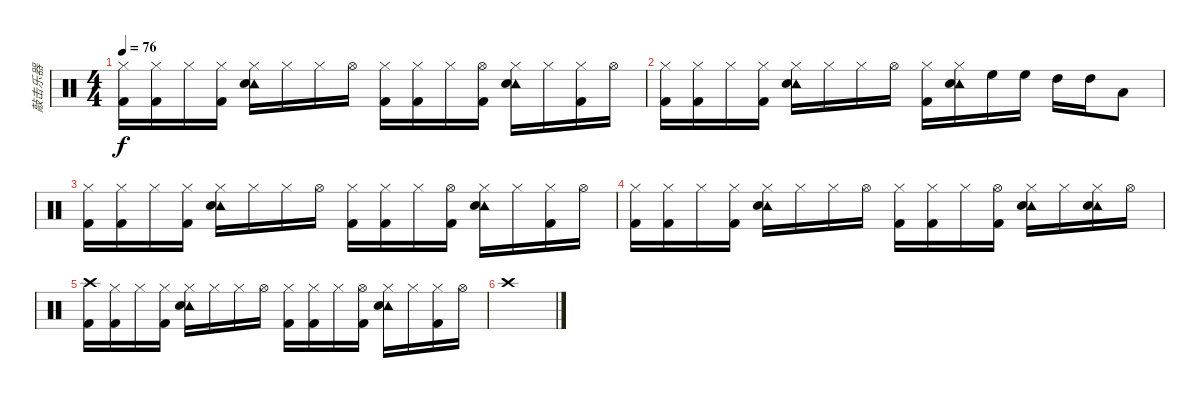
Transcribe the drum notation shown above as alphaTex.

\track ("敲击乐器" "敲击乐器") {instrument percussion}
\staff {score}
\articulation defaults
\ts (4 4)
\tempo 76
\clef neutral
\ks c
("Hi-Hat (closed)" "Kick (hit) 2").16{dy f} ("Hi-Hat (closed)" "Kick (hit) 2").16 "Hi-Hat (closed)".16 ("Hi-Hat (closed)" "Kick (hit) 2").16 ("Hi-Hat (closed)" "Tambourine (hit)" "Snare (hit) 2").16 "Hi-Hat (closed)".16 "Hi-Hat (closed)".16 "Hi-Hat (open)".16 ("Hi-Hat (closed)" "Kick (hit) 2").16 ("Hi-Hat (closed)" "Kick (hit) 2").16 "Hi-Hat (closed)".16 ("Hi-Hat (open)" "Kick (hit) 2").16 ("Hi-Hat (closed)" "Tambourine (hit)" "Snare (hit) 2").16 "Hi-Hat (closed)".16 ("Hi-Hat (closed)" "Kick (hit) 2").16 "Hi-Hat (open)".16 |
("Hi-Hat (closed)" "Kick (hit) 2").16 ("Hi-Hat (closed)" "Kick (hit) 2").16 "Hi-Hat (closed)".16 ("Hi-Hat (closed)" "Kick (hit) 2").16 ("Hi-Hat (closed)" "Tambourine (hit)" "Snare (hit) 2").16 "Hi-Hat (closed)".16 "Hi-Hat (closed)".16 "Hi-Hat (open)".16 ("Hi-Hat (closed)" "Kick (hit) 2").16 ("Hi-Hat (closed)" "Tambourine (hit)" "Snare (hit) 2").16 "High Floor Tom (hit)".16 "High Floor Tom (hit)".16 "High Tom (hit)".16 "High Tom (hit)".16 "Low Tom (hit)".8 |
("Hi-Hat (closed)" "Kick (hit) 2").16 ("Hi-Hat (closed)" "Kick (hit) 2").16 "Hi-Hat (closed)".16 ("Hi-Hat (closed)" "Kick (hit) 2").16 ("Hi-Hat (closed)" "Tambourine (hit)" "Snare (hit) 2").16 "Hi-Hat (closed)".16 "Hi-Hat (closed)".16 "Hi-Hat (open)".16 ("Hi-Hat (closed)" "Kick (hit) 2").16 ("Hi-Hat (closed)" "Kick (hit) 2").16 "Hi-Hat (closed)".16 ("Hi-Hat (open)" "Kick (hit) 2").16 ("Hi-Hat (closed)" "Tambourine (hit)" "Snare (hit) 2").16 "Hi-Hat (closed)".16 ("Hi-Hat (closed)" "Kick (hit) 2").16 "Hi-Hat (open)".16 |
("Hi-Hat (closed)" "Kick (hit) 2").16 ("Hi-Hat (closed)" "Kick (hit) 2").16 "Hi-Hat (closed)".16 ("Hi-Hat (closed)" "Kick (hit) 2").16 ("Hi-Hat (closed)" "Tambourine (hit)" "Snare (hit) 2").16 "Hi-Hat (closed)".16 "Hi-Hat (closed)".16 "Hi-Hat (open)".16 ("Hi-Hat (closed)" "Kick (hit) 2").16 ("Hi-Hat (closed)" "Kick (hit) 2").16 "Hi-Hat (closed)".16 ("Hi-Hat (open)" "Kick (hit) 2").16 ("Hi-Hat (closed)" "Tambourine (hit)" "Snare (hit) 2").16 "Hi-Hat (closed)".16 ("Hi-Hat (closed)" "Tambourine (hit)" "Snare (hit) 2").16 "Hi-Hat (open)".16 |
("Crash high (hit)" "Kick (hit) 2").16 ("Hi-Hat (closed)" "Kick (hit) 2").16 "Hi-Hat (closed)".16 ("Hi-Hat (closed)" "Kick (hit) 2").16 ("Hi-Hat (closed)" "Tambourine (hit)" "Snare (hit) 2").16 "Hi-Hat (closed)".16 "Hi-Hat (closed)".16 "Hi-Hat (open)".16 ("Hi-Hat (closed)" "Kick (hit) 2").16 ("Hi-Hat (closed)" "Kick (hit) 2").16 "Hi-Hat (closed)".16 ("Hi-Hat (open)" "Kick (hit) 2").16 ("Hi-Hat (closed)" "Tambourine (hit)" "Snare (hit) 2").16 "Hi-Hat (closed)".16 ("Hi-Hat (closed)" "Kick (hit) 2").16 "Hi-Hat (open)".16 |
"Crash high (hit)".1
